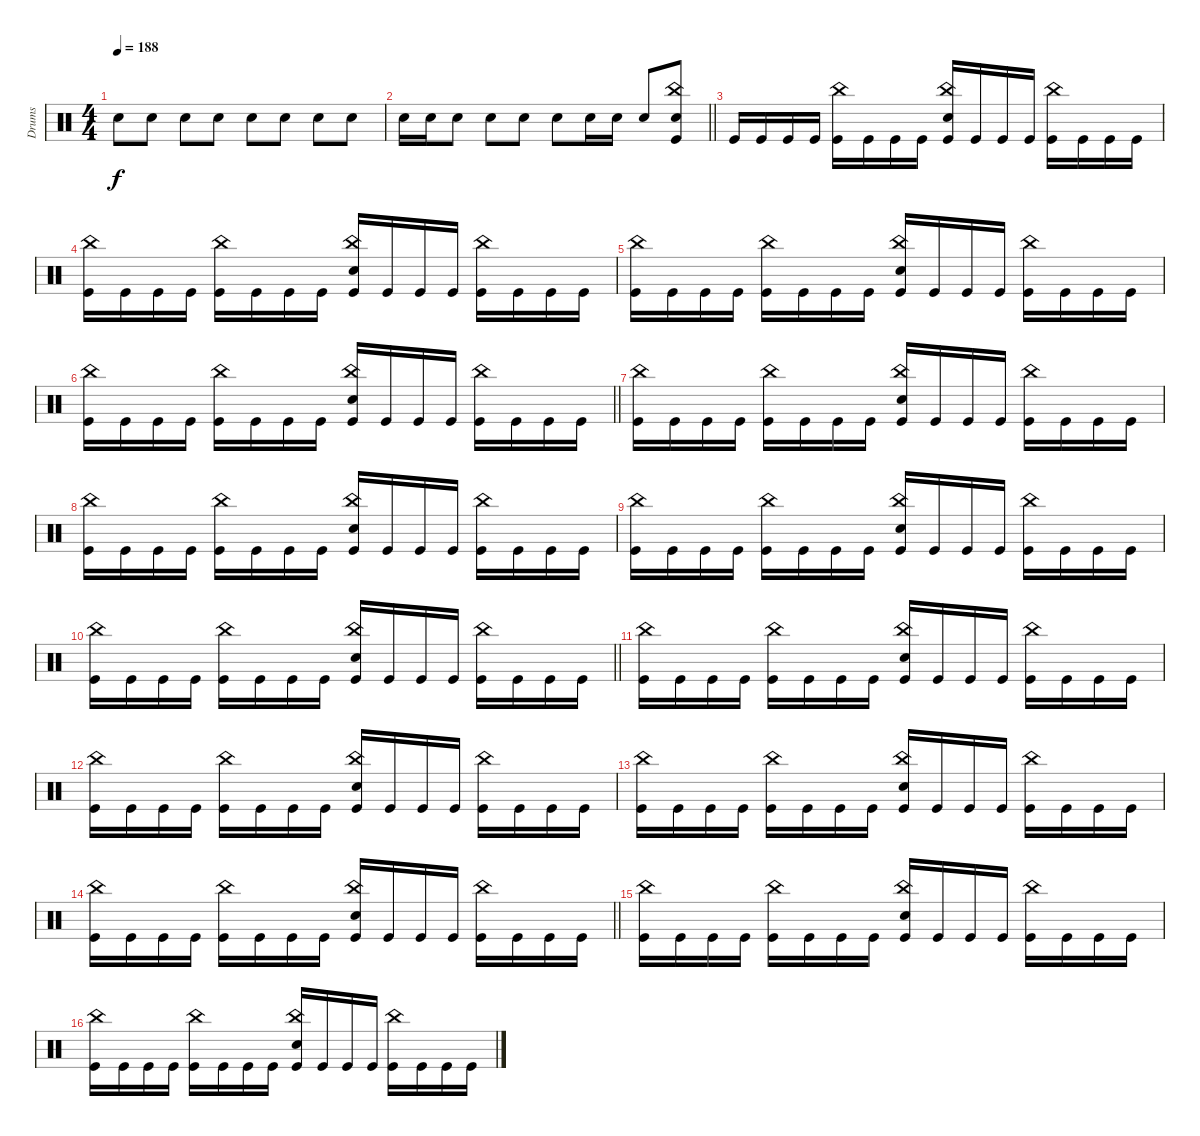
\track ("Drums" "Drums") {instrument percussion}
\staff
\articulation defaults
\ts (4 4)
\tempo 188
\clef neutral
\ks c "Electric Snare (hit)".8{dy f} "Electric Snare (hit)".8 "Electric Snare (hit)".8 "Electric Snare (hit)".8 "Electric Snare (hit)".8 "Electric Snare (hit)".8 "Electric Snare (hit)".8 "Electric Snare (hit)".8
|
\barLineRight lightlight "Electric Snare (hit)".16 "Electric Snare (hit)".16 "Electric Snare (hit)".8 "Electric Snare (hit)".8 "Electric Snare (hit)".8 "Electric Snare (hit)".8 "Electric Snare (hit)".16 "Electric Snare (hit)".16 "Electric Snare (hit)".8
("China (hit)" "Electric Snare (hit)" "Kick (hit)").8 |
\section ("" "")
"Kick (hit)".16 "Kick (hit)".16 "Kick (hit)".16 "Kick (hit)".16 ("China (hit)" "Kick (hit)").16 "Kick (hit)".16 "Kick (hit)".16 "Kick (hit)".16 ("China (hit)" "Electric Snare (hit)" "Kick (hit)").16 "Kick (hit)".16 "Kick (hit)".16 "Kick (hit)".16 ("China (hit)" "Kick (hit)").16 "Kick (hit)".16 "Kick (hit)".16 "Kick (hit)".16 |
("China (hit)" "Kick (hit)").16 "Kick (hit)".16 "Kick (hit)".16 "Kick (hit)".16 ("China (hit)" "Kick (hit)").16 "Kick (hit)".16 "Kick (hit)".16 "Kick (hit)".16 ("China (hit)" "Electric Snare (hit)" "Kick (hit)").16 "Kick (hit)".16 "Kick (hit)".16 "Kick (hit)".16 ("China (hit)" "Kick (hit)").16 "Kick (hit)".16 "Kick (hit)".16 "Kick (hit)".16 |
("China (hit)" "Kick (hit)").16 "Kick (hit)".16 "Kick (hit)".16 "Kick (hit)".16 ("China (hit)" "Kick (hit)").16 "Kick (hit)".16 "Kick (hit)".16 "Kick (hit)".16 ("China (hit)" "Electric Snare (hit)" "Kick (hit)").16 "Kick (hit)".16 "Kick (hit)".16 "Kick (hit)".16 ("China (hit)" "Kick (hit)").16 "Kick (hit)".16 "Kick (hit)".16 "Kick (hit)".16 |
\barLineRight lightlight
("China (hit)" "Kick (hit)").16 "Kick (hit)".16 "Kick (hit)".16 "Kick (hit)".16 ("China (hit)" "Kick (hit)").16 "Kick (hit)".16 "Kick (hit)".16 "Kick (hit)".16 ("China (hit)" "Electric Snare (hit)" "Kick (hit)").16 "Kick (hit)".16 "Kick (hit)".16 "Kick (hit)".16 ("China (hit)" "Kick (hit)").16 "Kick (hit)".16 "Kick (hit)".16 "Kick (hit)".16 |
("China (hit)" "Kick (hit)").16 "Kick (hit)".16 "Kick (hit)".16 "Kick (hit)".16 ("China (hit)" "Kick (hit)").16 "Kick (hit)".16 "Kick (hit)".16 "Kick (hit)".16 ("China (hit)" "Electric Snare (hit)" "Kick (hit)").16 "Kick (hit)".16 "Kick (hit)".16 "Kick (hit)".16 ("China (hit)" "Kick (hit)").16 "Kick (hit)".16 "Kick (hit)".16 "Kick (hit)".16 |
("China (hit)" "Kick (hit)").16 "Kick (hit)".16 "Kick (hit)".16 "Kick (hit)".16 ("China (hit)" "Kick (hit)").16 "Kick (hit)".16 "Kick (hit)".16 "Kick (hit)".16 ("China (hit)" "Electric Snare (hit)" "Kick (hit)").16 "Kick (hit)".16 "Kick (hit)".16 "Kick (hit)".16 ("China (hit)" "Kick (hit)").16 "Kick (hit)".16 "Kick (hit)".16 "Kick (hit)".16 |
("China (hit)" "Kick (hit)").16 "Kick (hit)".16 "Kick (hit)".16 "Kick (hit)".16 ("China (hit)" "Kick (hit)").16 "Kick (hit)".16 "Kick (hit)".16 "Kick (hit)".16 ("China (hit)" "Electric Snare (hit)" "Kick (hit)").16 "Kick (hit)".16 "Kick (hit)".16 "Kick (hit)".16 ("China (hit)" "Kick (hit)").16 "Kick (hit)".16 "Kick (hit)".16 "Kick (hit)".16 |
\barLineRight lightlight
("China (hit)" "Kick (hit)").16 "Kick (hit)".16 "Kick (hit)".16 "Kick (hit)".16 ("China (hit)" "Kick (hit)").16 "Kick (hit)".16 "Kick (hit)".16 "Kick (hit)".16 ("China (hit)" "Electric Snare (hit)" "Kick (hit)").16 "Kick (hit)".16 "Kick (hit)".16 "Kick (hit)".16 ("China (hit)" "Kick (hit)").16 "Kick (hit)".16 "Kick (hit)".16 "Kick (hit)".16 |
("China (hit)" "Kick (hit)").16 "Kick (hit)".16 "Kick (hit)".16 "Kick (hit)".16 ("China (hit)" "Kick (hit)").16 "Kick (hit)".16 "Kick (hit)".16 "Kick (hit)".16 ("China (hit)" "Electric Snare (hit)" "Kick (hit)").16 "Kick (hit)".16 "Kick (hit)".16 "Kick (hit)".16 ("China (hit)" "Kick (hit)").16 "Kick (hit)".16 "Kick (hit)".16 "Kick (hit)".16 |
("China (hit)" "Kick (hit)").16 "Kick (hit)".16 "Kick (hit)".16 "Kick (hit)".16 ("China (hit)" "Kick (hit)").16 "Kick (hit)".16 "Kick (hit)".16 "Kick (hit)".16 ("China (hit)" "Electric Snare (hit)" "Kick (hit)").16 "Kick (hit)".16 "Kick (hit)".16 "Kick (hit)".16 ("China (hit)" "Kick (hit)").16 "Kick (hit)".16 "Kick (hit)".16 "Kick (hit)".16 |
("China (hit)" "Kick (hit)").16 "Kick (hit)".16 "Kick (hit)".16 "Kick (hit)".16 ("China (hit)" "Kick (hit)").16 "Kick (hit)".16 "Kick (hit)".16 "Kick (hit)".16 ("China (hit)" "Electric Snare (hit)" "Kick (hit)").16 "Kick (hit)".16 "Kick (hit)".16 "Kick (hit)".16 ("China (hit)" "Kick (hit)").16 "Kick (hit)".16 "Kick (hit)".16 "Kick (hit)".16 |
\barLineRight lightlight
("China (hit)" "Kick (hit)").16 "Kick (hit)".16 "Kick (hit)".16 "Kick (hit)".16 ("China (hit)" "Kick (hit)").16 "Kick (hit)".16 "Kick (hit)".16 "Kick (hit)".16 ("China (hit)" "Electric Snare (hit)" "Kick (hit)").16 "Kick (hit)".16 "Kick (hit)".16 "Kick (hit)".16 ("China (hit)" "Kick (hit)").16 "Kick (hit)".16 "Kick (hit)".16 "Kick (hit)".16 |
("China (hit)" "Kick (hit)").16 "Kick (hit)".16 "Kick (hit)".16 "Kick (hit)".16 ("China (hit)" "Kick (hit)").16 "Kick (hit)".16 "Kick (hit)".16 "Kick (hit)".16 ("China (hit)" "Electric Snare (hit)" "Kick (hit)").16 "Kick (hit)".16 "Kick (hit)".16 "Kick (hit)".16 ("China (hit)" "Kick (hit)").16 "Kick (hit)".16 "Kick (hit)".16 "Kick (hit)".16 |
("China (hit)" "Kick (hit)").16 "Kick (hit)".16 "Kick (hit)".16 "Kick (hit)".16 ("China (hit)" "Kick (hit)").16 "Kick (hit)".16 "Kick (hit)".16 "Kick (hit)".16 ("China (hit)" "Electric Snare (hit)" "Kick (hit)").16 "Kick (hit)".16 "Kick (hit)".16 "Kick (hit)".16 ("China (hit)" "Kick (hit)").16 "Kick (hit)".16 "Kick (hit)".16 "Kick (hit)".16
